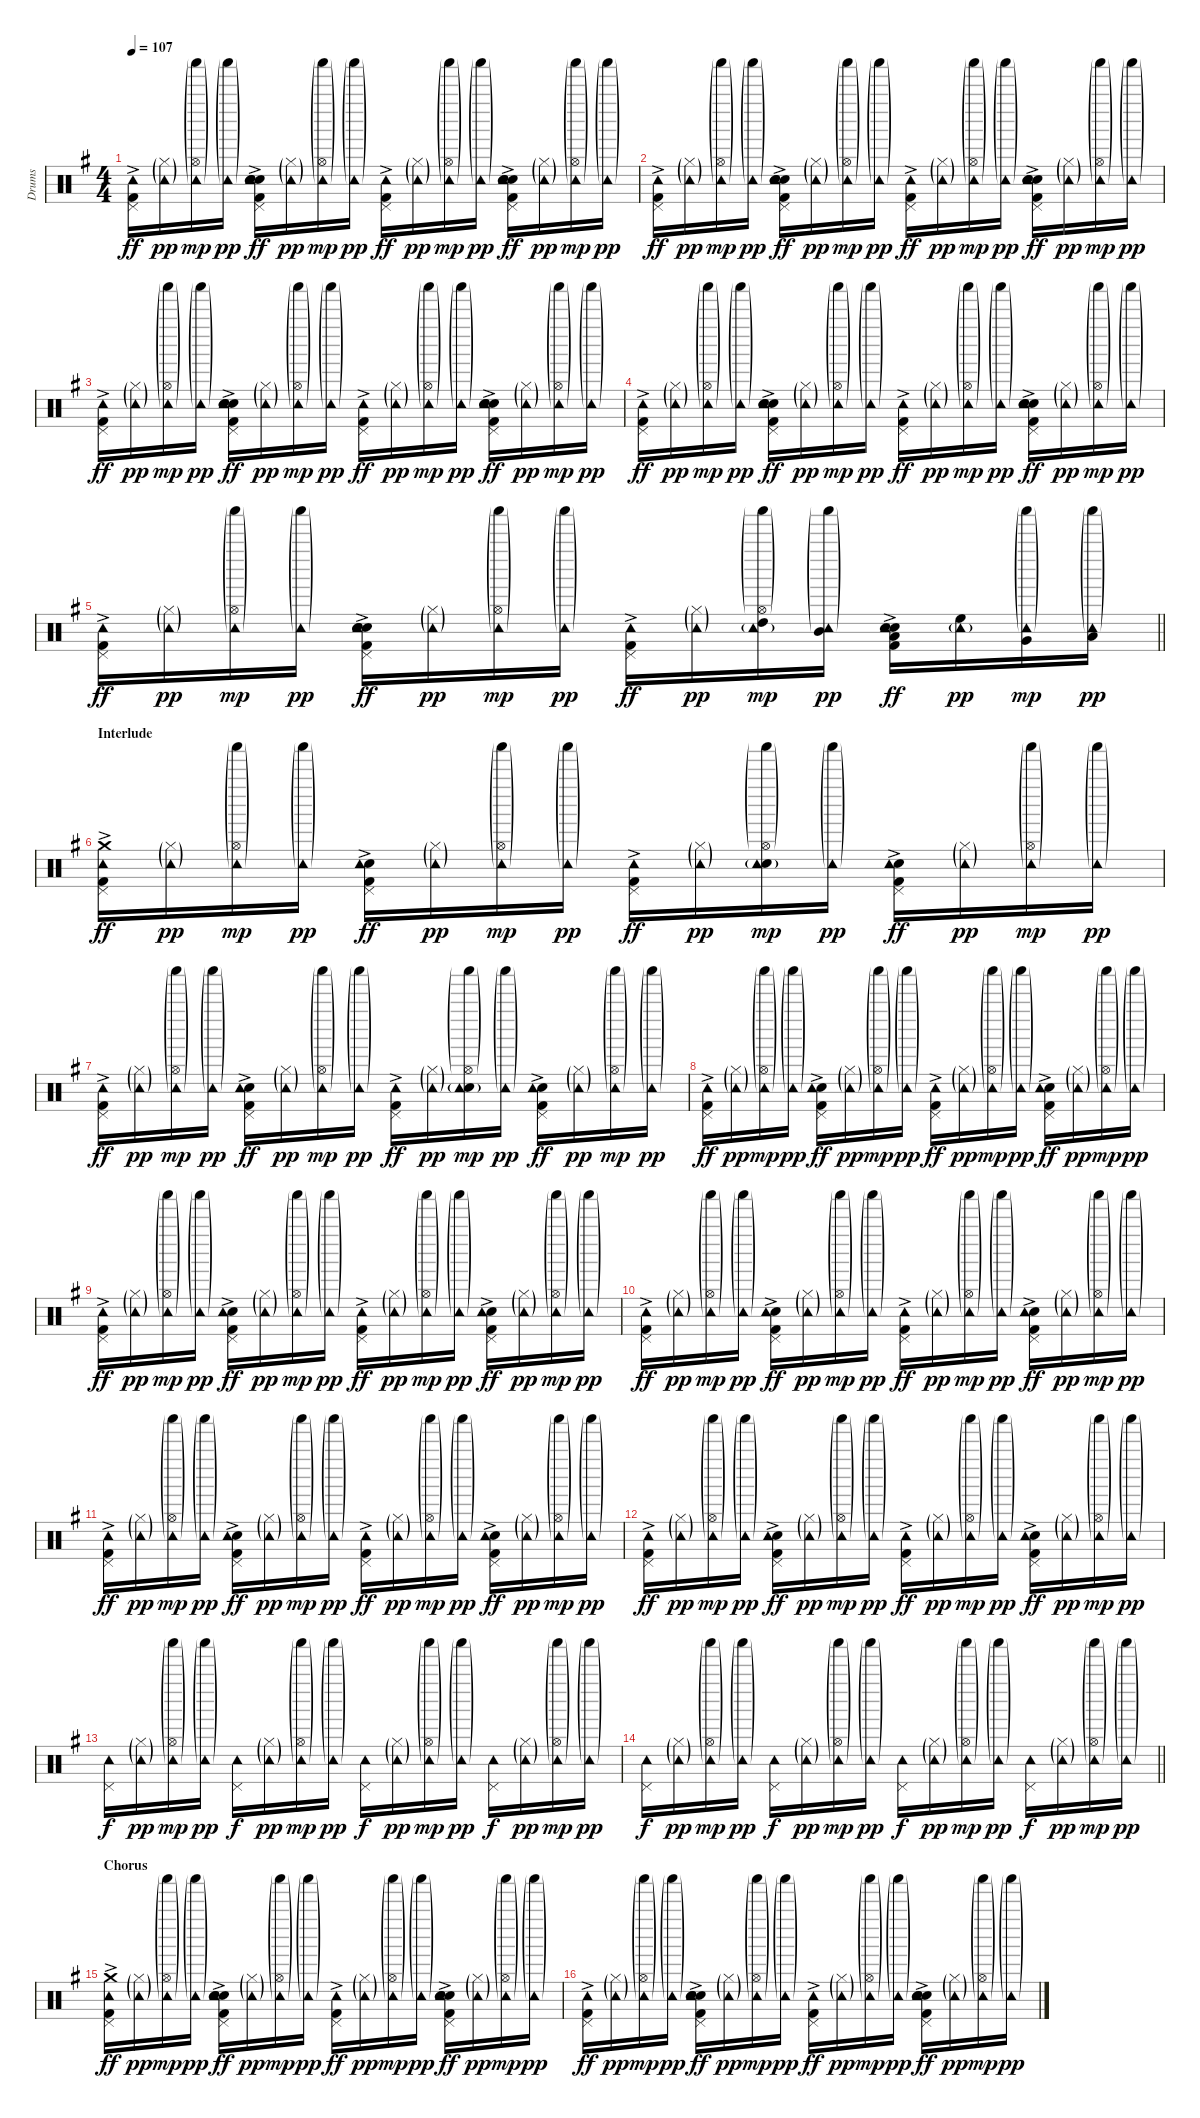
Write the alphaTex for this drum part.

\track ("Drums" "Drums") {instrument percussion}
\staff {score}
\articulation defaults
\ts (4 4)
\tempo 107
\clef neutral
\ks g
("Kick (hit) 2"{ac} "Pedal Hi-Hat (hit)" "Tambourine (hit)").16{dy ff} ("Hi-Hat (closed)"{g} "Tambourine (hit)"{g}).16{dy pp} ("Shaker (hit)"{g} "Hi-Hat (open)"{g} "Tambourine (hit)"{g}).16{dy mp} ("Shaker (hit)"{g} "Tambourine (hit)"{g}).16{dy pp} ("Kick (hit) 2"{ac} "Electric Snare (hit)"{ac} "Snare (hit) 2" "Hand Clap (hit)" "Pedal Hi-Hat (hit)" "Tambourine (hit)").16{dy ff} ("Hi-Hat (closed)"{g} "Tambourine (hit)"{g}).16{dy pp} ("Shaker (hit)"{g} "Hi-Hat (open)"{g} "Tambourine (hit)"{g}).16{dy mp} ("Shaker (hit)"{g} "Tambourine (hit)"{g}).16{dy pp} ("Kick (hit) 2"{ac} "Pedal Hi-Hat (hit)" "Tambourine (hit)").16{dy ff} ("Hi-Hat (closed)"{g} "Tambourine (hit)"{g}).16{dy pp} ("Shaker (hit)"{g} "Hi-Hat (open)"{g} "Tambourine (hit)"{g}).16{dy mp} ("Shaker (hit)"{g} "Tambourine (hit)"{g}).16{dy pp} ("Kick (hit) 2"{ac} "Electric Snare (hit)"{ac} "Snare (hit) 2" "Hand Clap (hit)" "Pedal Hi-Hat (hit)" "Tambourine (hit)").16{dy ff} ("Hi-Hat (closed)"{g} "Tambourine (hit)"{g}).16{dy pp} ("Shaker (hit)"{g} "Hi-Hat (open)"{g} "Tambourine (hit)"{g}).16{dy mp} ("Shaker (hit)"{g} "Tambourine (hit)"{g}).16{dy pp} |
("Kick (hit) 2"{ac} "Pedal Hi-Hat (hit)" "Tambourine (hit)").16{dy ff} ("Hi-Hat (closed)"{g} "Tambourine (hit)"{g}).16{dy pp} ("Shaker (hit)"{g} "Hi-Hat (open)"{g} "Tambourine (hit)"{g}).16{dy mp} ("Shaker (hit)"{g} "Tambourine (hit)"{g}).16{dy pp} ("Kick (hit) 2"{ac} "Electric Snare (hit)"{ac} "Snare (hit) 2" "Hand Clap (hit)" "Pedal Hi-Hat (hit)" "Tambourine (hit)").16{dy ff} ("Hi-Hat (closed)"{g} "Tambourine (hit)"{g}).16{dy pp} ("Shaker (hit)"{g} "Hi-Hat (open)"{g} "Tambourine (hit)"{g}).16{dy mp} ("Shaker (hit)"{g} "Tambourine (hit)"{g}).16{dy pp} ("Kick (hit) 2"{ac} "Pedal Hi-Hat (hit)" "Tambourine (hit)").16{dy ff} ("Hi-Hat (closed)"{g} "Tambourine (hit)"{g}).16{dy pp} ("Shaker (hit)"{g} "Hi-Hat (open)"{g} "Tambourine (hit)"{g}).16{dy mp} ("Shaker (hit)"{g} "Tambourine (hit)"{g}).16{dy pp} ("Kick (hit) 2"{ac} "Electric Snare (hit)"{ac} "Snare (hit) 2" "Hand Clap (hit)" "Pedal Hi-Hat (hit)" "Tambourine (hit)").16{dy ff} ("Hi-Hat (closed)"{g} "Tambourine (hit)"{g}).16{dy pp} ("Shaker (hit)"{g} "Hi-Hat (open)"{g} "Tambourine (hit)"{g}).16{dy mp} ("Shaker (hit)"{g} "Tambourine (hit)"{g}).16{dy pp} |
("Kick (hit) 2"{ac} "Pedal Hi-Hat (hit)" "Tambourine (hit)").16{dy ff} ("Hi-Hat (closed)"{g} "Tambourine (hit)"{g}).16{dy pp} ("Shaker (hit)"{g} "Hi-Hat (open)"{g} "Tambourine (hit)"{g}).16{dy mp} ("Shaker (hit)"{g} "Tambourine (hit)"{g}).16{dy pp} ("Kick (hit) 2"{ac} "Electric Snare (hit)"{ac} "Snare (hit) 2" "Hand Clap (hit)" "Pedal Hi-Hat (hit)" "Tambourine (hit)").16{dy ff} ("Hi-Hat (closed)"{g} "Tambourine (hit)"{g}).16{dy pp} ("Shaker (hit)"{g} "Hi-Hat (open)"{g} "Tambourine (hit)"{g}).16{dy mp} ("Shaker (hit)"{g} "Tambourine (hit)"{g}).16{dy pp} ("Kick (hit) 2"{ac} "Pedal Hi-Hat (hit)" "Tambourine (hit)").16{dy ff} ("Hi-Hat (closed)"{g} "Tambourine (hit)"{g}).16{dy pp} ("Shaker (hit)"{g} "Hi-Hat (open)"{g} "Tambourine (hit)"{g}).16{dy mp} ("Shaker (hit)"{g} "Tambourine (hit)"{g}).16{dy pp} ("Kick (hit) 2"{ac} "Electric Snare (hit)"{ac} "Snare (hit) 2" "Hand Clap (hit)" "Pedal Hi-Hat (hit)" "Tambourine (hit)").16{dy ff} ("Hi-Hat (closed)"{g} "Tambourine (hit)"{g}).16{dy pp} ("Shaker (hit)"{g} "Hi-Hat (open)"{g} "Tambourine (hit)"{g}).16{dy mp} ("Shaker (hit)"{g} "Tambourine (hit)"{g}).16{dy pp} |
("Kick (hit) 2"{ac} "Pedal Hi-Hat (hit)" "Tambourine (hit)").16{dy ff} ("Hi-Hat (closed)"{g} "Tambourine (hit)"{g}).16{dy pp} ("Shaker (hit)"{g} "Hi-Hat (open)"{g} "Tambourine (hit)"{g}).16{dy mp} ("Shaker (hit)"{g} "Tambourine (hit)"{g}).16{dy pp} ("Kick (hit) 2"{ac} "Electric Snare (hit)"{ac} "Snare (hit) 2" "Hand Clap (hit)" "Pedal Hi-Hat (hit)" "Tambourine (hit)").16{dy ff} ("Hi-Hat (closed)"{g} "Tambourine (hit)"{g}).16{dy pp} ("Shaker (hit)"{g} "Hi-Hat (open)"{g} "Tambourine (hit)"{g}).16{dy mp} ("Shaker (hit)"{g} "Tambourine (hit)"{g}).16{dy pp} ("Kick (hit) 2"{ac} "Pedal Hi-Hat (hit)" "Tambourine (hit)").16{dy ff} ("Hi-Hat (closed)"{g} "Tambourine (hit)"{g}).16{dy pp} ("Shaker (hit)"{g} "Hi-Hat (open)"{g} "Tambourine (hit)"{g}).16{dy mp} ("Shaker (hit)"{g} "Tambourine (hit)"{g}).16{dy pp} ("Kick (hit) 2"{ac} "Electric Snare (hit)"{ac} "Snare (hit) 2" "Hand Clap (hit)" "Pedal Hi-Hat (hit)" "Tambourine (hit)").16{dy ff} ("Hi-Hat (closed)"{g} "Tambourine (hit)"{g}).16{dy pp} ("Shaker (hit)"{g} "Hi-Hat (open)"{g} "Tambourine (hit)"{g}).16{dy mp} ("Shaker (hit)"{g} "Tambourine (hit)"{g}).16{dy pp} |
\barLineRight lightlight
("Kick (hit) 2"{ac} "Pedal Hi-Hat (hit)" "Tambourine (hit)").16{dy ff} ("Hi-Hat (closed)"{g} "Tambourine (hit)"{g}).16{dy pp} ("Shaker (hit)"{g} "Hi-Hat (open)"{g} "Tambourine (hit)"{g}).16{dy mp} ("Shaker (hit)"{g} "Tambourine (hit)"{g}).16{dy pp} ("Kick (hit) 2"{ac} "Electric Snare (hit)"{ac} "Snare (hit) 2" "Hand Clap (hit)" "Pedal Hi-Hat (hit)" "Tambourine (hit)").16{dy ff} ("Hi-Hat (closed)"{g} "Tambourine (hit)"{g}).16{dy pp} ("Shaker (hit)"{g} "Hi-Hat (open)"{g} "Tambourine (hit)"{g}).16{dy mp} ("Shaker (hit)"{g} "Tambourine (hit)"{g}).16{dy pp} ("Kick (hit) 2"{ac} "Pedal Hi-Hat (hit)" "Tambourine (hit)").16{dy ff} ("Hi-Hat (closed)"{g} "Tambourine (hit)"{g}).16{dy pp} ("High Tom (hit)" "Shaker (hit)"{g} "Hi-Hat (open)"{g} "Tambourine (hit)"{g}).16{dy mp} ("Mid Tom (hit)" "Shaker (hit)"{g} "Tambourine (hit)"{g}).16{dy pp} ("Kick (hit) 2"{ac} "Electric Snare (hit)"{ac} "Low Tom (hit)" "Hand Clap (hit)" "Tambourine (hit)").16{dy ff} ("High Floor Tom (hit)" "Tambourine (hit)"{g}).16{dy pp} ("Very Low Tom (hit)" "Shaker (hit)"{g} "Tambourine (hit)"{g}).16{dy mp} ("Low Floor Tom (hit)" "Shaker (hit)"{g} "Tambourine (hit)"{g}).16{dy pp} |
\section ("" "Interlude")
("Kick (hit) 2"{ac} "Crash medium (hit)" "Pedal Hi-Hat (hit)" "Tambourine (hit)").16{dy ff} ("Hi-Hat (closed)"{g} "Tambourine (hit)"{g}).16{dy pp} ("Shaker (hit)"{g} "Hi-Hat (open)"{g} "Tambourine (hit)"{g}).16{dy mp} ("Shaker (hit)"{g} "Tambourine (hit)"{g}).16{dy pp} ("Kick (hit) 2"{ac} "Hand Clap (hit)" "Pedal Hi-Hat (hit)" "Tambourine (hit)").16{dy ff} ("Hi-Hat (closed)"{g} "Tambourine (hit)"{g}).16{dy pp} ("Shaker (hit)"{g} "Hi-Hat (open)"{g} "Tambourine (hit)"{g}).16{dy mp} ("Shaker (hit)"{g} "Tambourine (hit)"{g}).16{dy pp} ("Kick (hit) 2"{ac} "Pedal Hi-Hat (hit)" "Tambourine (hit)").16{dy ff} ("Hi-Hat (closed)"{g} "Tambourine (hit)"{g}).16{dy pp} ("Hand Clap (hit)" "Shaker (hit)"{g} "Hi-Hat (open)"{g} "Tambourine (hit)"{g}).16{dy mp} ("Shaker (hit)"{g} "Tambourine (hit)"{g}).16{dy pp} ("Kick (hit) 2"{ac} "Hand Clap (hit)" "Pedal Hi-Hat (hit)" "Tambourine (hit)").16{dy ff} ("Hi-Hat (closed)"{g} "Tambourine (hit)"{g}).16{dy pp} ("Shaker (hit)"{g} "Hi-Hat (open)"{g} "Tambourine (hit)"{g}).16{dy mp} ("Shaker (hit)"{g} "Tambourine (hit)"{g}).16{dy pp} |
("Kick (hit) 2"{ac} "Pedal Hi-Hat (hit)" "Tambourine (hit)").16{dy ff} ("Hi-Hat (closed)"{g} "Tambourine (hit)"{g}).16{dy pp} ("Shaker (hit)"{g} "Hi-Hat (open)"{g} "Tambourine (hit)"{g}).16{dy mp} ("Shaker (hit)"{g} "Tambourine (hit)"{g}).16{dy pp} ("Kick (hit) 2"{ac} "Hand Clap (hit)" "Pedal Hi-Hat (hit)" "Tambourine (hit)").16{dy ff} ("Hi-Hat (closed)"{g} "Tambourine (hit)"{g}).16{dy pp} ("Shaker (hit)"{g} "Hi-Hat (open)"{g} "Tambourine (hit)"{g}).16{dy mp} ("Shaker (hit)"{g} "Tambourine (hit)"{g}).16{dy pp} ("Kick (hit) 2"{ac} "Pedal Hi-Hat (hit)" "Tambourine (hit)").16{dy ff} ("Hi-Hat (closed)"{g} "Tambourine (hit)"{g}).16{dy pp} ("Hand Clap (hit)" "Shaker (hit)"{g} "Hi-Hat (open)"{g} "Tambourine (hit)"{g}).16{dy mp} ("Shaker (hit)"{g} "Tambourine (hit)"{g}).16{dy pp} ("Kick (hit) 2"{ac} "Hand Clap (hit)" "Pedal Hi-Hat (hit)" "Tambourine (hit)").16{dy ff} ("Hi-Hat (closed)"{g} "Tambourine (hit)"{g}).16{dy pp} ("Shaker (hit)"{g} "Hi-Hat (open)"{g} "Tambourine (hit)"{g}).16{dy mp} ("Shaker (hit)"{g} "Tambourine (hit)"{g}).16{dy pp} |
("Kick (hit) 2"{ac} "Pedal Hi-Hat (hit)" "Tambourine (hit)").16{dy ff} ("Hi-Hat (closed)"{g} "Tambourine (hit)"{g}).16{dy pp} ("Shaker (hit)"{g} "Hi-Hat (open)"{g} "Tambourine (hit)"{g}).16{dy mp} ("Shaker (hit)"{g} "Tambourine (hit)"{g}).16{dy pp} ("Kick (hit) 2"{ac} "Hand Clap (hit)" "Pedal Hi-Hat (hit)" "Tambourine (hit)").16{dy ff} ("Hi-Hat (closed)"{g} "Tambourine (hit)"{g}).16{dy pp} ("Shaker (hit)"{g} "Hi-Hat (open)"{g} "Tambourine (hit)"{g}).16{dy mp} ("Shaker (hit)"{g} "Tambourine (hit)"{g}).16{dy pp} ("Kick (hit) 2"{ac} "Pedal Hi-Hat (hit)" "Tambourine (hit)").16{dy ff} ("Hi-Hat (closed)"{g} "Tambourine (hit)"{g}).16{dy pp} ("Shaker (hit)"{g} "Hi-Hat (open)"{g} "Tambourine (hit)"{g}).16{dy mp} ("Shaker (hit)"{g} "Tambourine (hit)"{g}).16{dy pp} ("Kick (hit) 2"{ac} "Hand Clap (hit)" "Pedal Hi-Hat (hit)" "Tambourine (hit)").16{dy ff} ("Hi-Hat (closed)"{g} "Tambourine (hit)"{g}).16{dy pp} ("Shaker (hit)"{g} "Hi-Hat (open)"{g} "Tambourine (hit)"{g}).16{dy mp} ("Shaker (hit)"{g} "Tambourine (hit)"{g}).16{dy pp} |
("Kick (hit) 2"{ac} "Pedal Hi-Hat (hit)" "Tambourine (hit)").16{dy ff} ("Hi-Hat (closed)"{g} "Tambourine (hit)"{g}).16{dy pp} ("Shaker (hit)"{g} "Hi-Hat (open)"{g} "Tambourine (hit)"{g}).16{dy mp} ("Shaker (hit)"{g} "Tambourine (hit)"{g}).16{dy pp} ("Kick (hit) 2"{ac} "Hand Clap (hit)" "Pedal Hi-Hat (hit)" "Tambourine (hit)").16{dy ff} ("Hi-Hat (closed)"{g} "Tambourine (hit)"{g}).16{dy pp} ("Shaker (hit)"{g} "Hi-Hat (open)"{g} "Tambourine (hit)"{g}).16{dy mp} ("Shaker (hit)"{g} "Tambourine (hit)"{g}).16{dy pp} ("Kick (hit) 2"{ac} "Pedal Hi-Hat (hit)" "Tambourine (hit)").16{dy ff} ("Hi-Hat (closed)"{g} "Tambourine (hit)"{g}).16{dy pp} ("Shaker (hit)"{g} "Hi-Hat (open)"{g} "Tambourine (hit)"{g}).16{dy mp} ("Shaker (hit)"{g} "Tambourine (hit)"{g}).16{dy pp} ("Kick (hit) 2"{ac} "Hand Clap (hit)" "Pedal Hi-Hat (hit)" "Tambourine (hit)").16{dy ff} ("Hi-Hat (closed)"{g} "Tambourine (hit)"{g}).16{dy pp} ("Shaker (hit)"{g} "Hi-Hat (open)"{g} "Tambourine (hit)"{g}).16{dy mp} ("Shaker (hit)"{g} "Tambourine (hit)"{g}).16{dy pp} |
("Kick (hit) 2"{ac} "Pedal Hi-Hat (hit)" "Tambourine (hit)").16{dy ff} ("Hi-Hat (closed)"{g} "Tambourine (hit)"{g}).16{dy pp} ("Shaker (hit)"{g} "Hi-Hat (open)"{g} "Tambourine (hit)"{g}).16{dy mp} ("Shaker (hit)"{g} "Tambourine (hit)"{g}).16{dy pp} ("Kick (hit) 2"{ac} "Hand Clap (hit)" "Pedal Hi-Hat (hit)" "Tambourine (hit)").16{dy ff} ("Hi-Hat (closed)"{g} "Tambourine (hit)"{g}).16{dy pp} ("Shaker (hit)"{g} "Hi-Hat (open)"{g} "Tambourine (hit)"{g}).16{dy mp} ("Shaker (hit)"{g} "Tambourine (hit)"{g}).16{dy pp} ("Kick (hit) 2"{ac} "Pedal Hi-Hat (hit)" "Tambourine (hit)").16{dy ff} ("Hi-Hat (closed)"{g} "Tambourine (hit)"{g}).16{dy pp} ("Shaker (hit)"{g} "Hi-Hat (open)"{g} "Tambourine (hit)"{g}).16{dy mp} ("Shaker (hit)"{g} "Tambourine (hit)"{g}).16{dy pp} ("Kick (hit) 2"{ac} "Hand Clap (hit)" "Pedal Hi-Hat (hit)" "Tambourine (hit)").16{dy ff} ("Hi-Hat (closed)"{g} "Tambourine (hit)"{g}).16{dy pp} ("Shaker (hit)"{g} "Hi-Hat (open)"{g} "Tambourine (hit)"{g}).16{dy mp} ("Shaker (hit)"{g} "Tambourine (hit)"{g}).16{dy pp} |
("Kick (hit) 2"{ac} "Pedal Hi-Hat (hit)" "Tambourine (hit)").16{dy ff} ("Hi-Hat (closed)"{g} "Tambourine (hit)"{g}).16{dy pp} ("Shaker (hit)"{g} "Hi-Hat (open)"{g} "Tambourine (hit)"{g}).16{dy mp} ("Shaker (hit)"{g} "Tambourine (hit)"{g}).16{dy pp} ("Kick (hit) 2"{ac} "Hand Clap (hit)" "Pedal Hi-Hat (hit)" "Tambourine (hit)").16{dy ff} ("Hi-Hat (closed)"{g} "Tambourine (hit)"{g}).16{dy pp} ("Shaker (hit)"{g} "Hi-Hat (open)"{g} "Tambourine (hit)"{g}).16{dy mp} ("Shaker (hit)"{g} "Tambourine (hit)"{g}).16{dy pp} ("Kick (hit) 2"{ac} "Pedal Hi-Hat (hit)" "Tambourine (hit)").16{dy ff} ("Hi-Hat (closed)"{g} "Tambourine (hit)"{g}).16{dy pp} ("Shaker (hit)"{g} "Hi-Hat (open)"{g} "Tambourine (hit)"{g}).16{dy mp} ("Shaker (hit)"{g} "Tambourine (hit)"{g}).16{dy pp} ("Kick (hit) 2"{ac} "Hand Clap (hit)" "Pedal Hi-Hat (hit)" "Tambourine (hit)").16{dy ff} ("Hi-Hat (closed)"{g} "Tambourine (hit)"{g}).16{dy pp} ("Shaker (hit)"{g} "Hi-Hat (open)"{g} "Tambourine (hit)"{g}).16{dy mp} ("Shaker (hit)"{g} "Tambourine (hit)"{g}).16{dy pp} |
("Kick (hit) 2"{ac} "Pedal Hi-Hat (hit)" "Tambourine (hit)").16{dy ff} ("Hi-Hat (closed)"{g} "Tambourine (hit)"{g}).16{dy pp} ("Shaker (hit)"{g} "Hi-Hat (open)"{g} "Tambourine (hit)"{g}).16{dy mp} ("Shaker (hit)"{g} "Tambourine (hit)"{g}).16{dy pp} ("Kick (hit) 2"{ac} "Hand Clap (hit)" "Pedal Hi-Hat (hit)" "Tambourine (hit)").16{dy ff} ("Hi-Hat (closed)"{g} "Tambourine (hit)"{g}).16{dy pp} ("Shaker (hit)"{g} "Hi-Hat (open)"{g} "Tambourine (hit)"{g}).16{dy mp} ("Shaker (hit)"{g} "Tambourine (hit)"{g}).16{dy pp} ("Kick (hit) 2"{ac} "Pedal Hi-Hat (hit)" "Tambourine (hit)").16{dy ff} ("Hi-Hat (closed)"{g} "Tambourine (hit)"{g}).16{dy pp} ("Shaker (hit)"{g} "Hi-Hat (open)"{g} "Tambourine (hit)"{g}).16{dy mp} ("Shaker (hit)"{g} "Tambourine (hit)"{g}).16{dy pp} ("Kick (hit) 2"{ac} "Hand Clap (hit)" "Pedal Hi-Hat (hit)" "Tambourine (hit)").16{dy ff} ("Hi-Hat (closed)"{g} "Tambourine (hit)"{g}).16{dy pp} ("Shaker (hit)"{g} "Hi-Hat (open)"{g} "Tambourine (hit)"{g}).16{dy mp} ("Shaker (hit)"{g} "Tambourine (hit)"{g}).16{dy pp} |
("Pedal Hi-Hat (hit)" "Tambourine (hit)").16{dy f} ("Hi-Hat (closed)"{g} "Tambourine (hit)"{g}).16{dy pp} ("Shaker (hit)"{g} "Hi-Hat (open)"{g} "Tambourine (hit)"{g}).16{dy mp} ("Shaker (hit)"{g} "Tambourine (hit)"{g}).16{dy pp} ("Pedal Hi-Hat (hit)" "Tambourine (hit)").16{dy f} ("Hi-Hat (closed)"{g} "Tambourine (hit)"{g}).16{dy pp} ("Shaker (hit)"{g} "Hi-Hat (open)"{g} "Tambourine (hit)"{g}).16{dy mp} ("Shaker (hit)"{g} "Tambourine (hit)"{g}).16{dy pp} ("Pedal Hi-Hat (hit)" "Tambourine (hit)").16{dy f} ("Hi-Hat (closed)"{g} "Tambourine (hit)"{g}).16{dy pp} ("Shaker (hit)"{g} "Hi-Hat (open)"{g} "Tambourine (hit)"{g}).16{dy mp} ("Shaker (hit)"{g} "Tambourine (hit)"{g}).16{dy pp} ("Pedal Hi-Hat (hit)" "Tambourine (hit)").16{dy f} ("Hi-Hat (closed)"{g} "Tambourine (hit)"{g}).16{dy pp} ("Shaker (hit)"{g} "Hi-Hat (open)"{g} "Tambourine (hit)"{g}).16{dy mp} ("Shaker (hit)"{g} "Tambourine (hit)"{g}).16{dy pp} |
\barLineRight lightlight
("Pedal Hi-Hat (hit)" "Tambourine (hit)").16{dy f} ("Hi-Hat (closed)"{g} "Tambourine (hit)"{g}).16{dy pp} ("Shaker (hit)"{g} "Hi-Hat (open)"{g} "Tambourine (hit)"{g}).16{dy mp} ("Shaker (hit)"{g} "Tambourine (hit)"{g}).16{dy pp} ("Pedal Hi-Hat (hit)" "Tambourine (hit)").16{dy f} ("Hi-Hat (closed)"{g} "Tambourine (hit)"{g}).16{dy pp} ("Shaker (hit)"{g} "Hi-Hat (open)"{g} "Tambourine (hit)"{g}).16{dy mp} ("Shaker (hit)"{g} "Tambourine (hit)"{g}).16{dy pp} ("Pedal Hi-Hat (hit)" "Tambourine (hit)").16{dy f} ("Hi-Hat (closed)"{g} "Tambourine (hit)"{g}).16{dy pp} ("Shaker (hit)"{g} "Hi-Hat (open)"{g} "Tambourine (hit)"{g}).16{dy mp} ("Shaker (hit)"{g} "Tambourine (hit)"{g}).16{dy pp} ("Pedal Hi-Hat (hit)" "Tambourine (hit)").16{dy f} ("Hi-Hat (closed)"{g} "Tambourine (hit)"{g}).16{dy pp} ("Shaker (hit)"{g} "Hi-Hat (open)"{g} "Tambourine (hit)"{g}).16{dy mp} ("Shaker (hit)"{g} "Tambourine (hit)"{g}).16{dy pp} |
\section ("" "Chorus")
("Kick (hit) 2"{ac} "Crash medium (hit)" "Pedal Hi-Hat (hit)" "Tambourine (hit)").16{dy ff} ("Hi-Hat (closed)"{g} "Tambourine (hit)"{g}).16{dy pp} ("Shaker (hit)"{g} "Hi-Hat (open)"{g} "Tambourine (hit)"{g}).16{dy mp} ("Shaker (hit)"{g} "Tambourine (hit)"{g}).16{dy pp} ("Kick (hit) 2"{ac} "Electric Snare (hit)"{ac} "Snare (hit) 2" "Hand Clap (hit)" "Pedal Hi-Hat (hit)" "Tambourine (hit)").16{dy ff} ("Hi-Hat (closed)"{g} "Tambourine (hit)"{g}).16{dy pp} ("Shaker (hit)"{g} "Hi-Hat (open)"{g} "Tambourine (hit)"{g}).16{dy mp} ("Shaker (hit)"{g} "Tambourine (hit)"{g}).16{dy pp} ("Kick (hit) 2"{ac} "Pedal Hi-Hat (hit)" "Tambourine (hit)").16{dy ff} ("Hi-Hat (closed)"{g} "Tambourine (hit)"{g}).16{dy pp} ("Shaker (hit)"{g} "Hi-Hat (open)"{g} "Tambourine (hit)"{g}).16{dy mp} ("Shaker (hit)"{g} "Tambourine (hit)"{g}).16{dy pp} ("Kick (hit) 2"{ac} "Electric Snare (hit)"{ac} "Snare (hit) 2" "Hand Clap (hit)" "Pedal Hi-Hat (hit)" "Tambourine (hit)").16{dy ff} ("Hi-Hat (closed)"{g} "Tambourine (hit)"{g}).16{dy pp} ("Shaker (hit)"{g} "Hi-Hat (open)"{g} "Tambourine (hit)"{g}).16{dy mp} ("Shaker (hit)"{g} "Tambourine (hit)"{g}).16{dy pp} |
("Kick (hit) 2"{ac} "Pedal Hi-Hat (hit)" "Tambourine (hit)").16{dy ff} ("Hi-Hat (closed)"{g} "Tambourine (hit)"{g}).16{dy pp} ("Shaker (hit)"{g} "Hi-Hat (open)"{g} "Tambourine (hit)"{g}).16{dy mp} ("Shaker (hit)"{g} "Tambourine (hit)"{g}).16{dy pp} ("Kick (hit) 2"{ac} "Electric Snare (hit)"{ac} "Snare (hit) 2" "Hand Clap (hit)" "Pedal Hi-Hat (hit)" "Tambourine (hit)").16{dy ff} ("Hi-Hat (closed)"{g} "Tambourine (hit)"{g}).16{dy pp} ("Shaker (hit)"{g} "Hi-Hat (open)"{g} "Tambourine (hit)"{g}).16{dy mp} ("Shaker (hit)"{g} "Tambourine (hit)"{g}).16{dy pp} ("Kick (hit) 2"{ac} "Pedal Hi-Hat (hit)" "Tambourine (hit)").16{dy ff} ("Hi-Hat (closed)"{g} "Tambourine (hit)"{g}).16{dy pp} ("Shaker (hit)"{g} "Hi-Hat (open)"{g} "Tambourine (hit)"{g}).16{dy mp} ("Shaker (hit)"{g} "Tambourine (hit)"{g}).16{dy pp} ("Kick (hit) 2"{ac} "Electric Snare (hit)"{ac} "Snare (hit) 2" "Hand Clap (hit)" "Pedal Hi-Hat (hit)" "Tambourine (hit)").16{dy ff} ("Hi-Hat (closed)"{g} "Tambourine (hit)"{g}).16{dy pp} ("Shaker (hit)"{g} "Hi-Hat (open)"{g} "Tambourine (hit)"{g}).16{dy mp} ("Shaker (hit)"{g} "Tambourine (hit)"{g}).16{dy pp}
